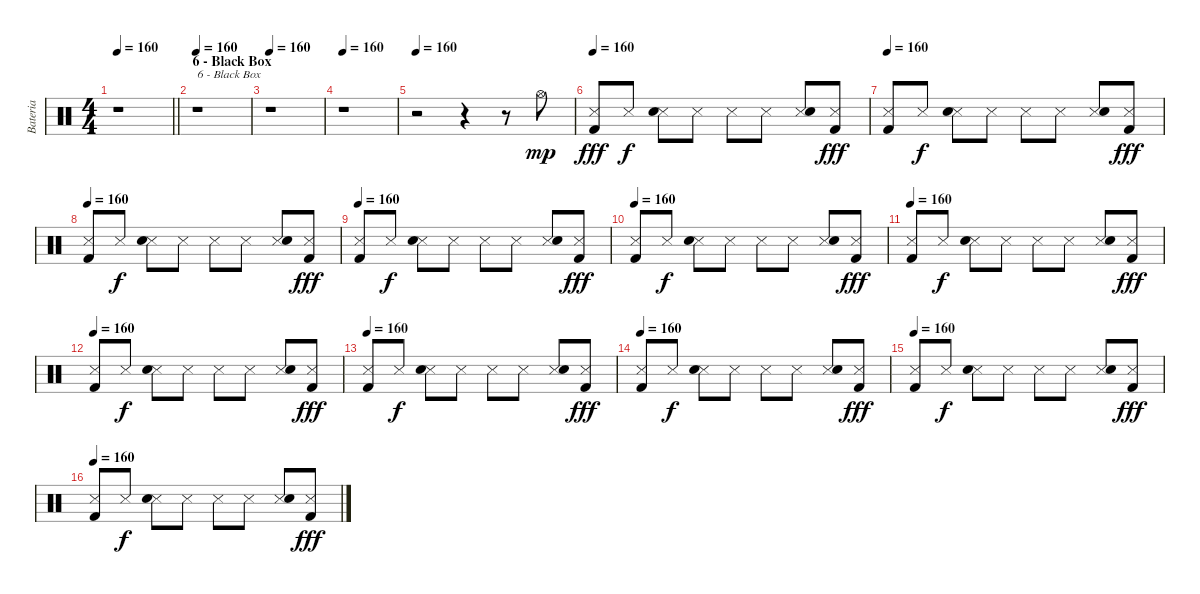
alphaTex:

\track ("Bateria" "Bateria") {instrument percussion}
\staff {score}
\articulation defaults
\ts (4 4)
\tempo 160
\clef neutral
\barLineRight lightlight
\ks c
r.1{dy fff} |
\section ("" "6 - Black Box")
\tempo 160
r.1{txt "6 - Black Box"} |
\tempo 160
r.1 |
\tempo 160
r.1 |
\tempo 160
r.2 r.4 r.8 "Hi-Hat (open)".8{dy mp} |
\tempo 160
("Metronome (hit)" "Kick (hit) 2").8{dy fff} "Metronome (hit)".8{dy f} ("Metronome (hit)" "Snare (hit) 2").8 "Metronome (hit)".8 "Metronome (hit)".8 "Metronome (hit)".8 ("Metronome (hit)" "Snare (hit) 2").8 ("Metronome (hit)" "Kick (hit) 2").8{dy fff} |
\tempo 160
("Metronome (hit)" "Kick (hit) 2").8 "Metronome (hit)".8{dy f} ("Metronome (hit)" "Snare (hit) 2").8 "Metronome (hit)".8 "Metronome (hit)".8 "Metronome (hit)".8 ("Metronome (hit)" "Snare (hit) 2").8 ("Metronome (hit)" "Kick (hit) 2").8{dy fff} |
\tempo 160
("Metronome (hit)" "Kick (hit) 2").8 "Metronome (hit)".8{dy f} ("Metronome (hit)" "Snare (hit) 2").8 "Metronome (hit)".8 "Metronome (hit)".8 "Metronome (hit)".8 ("Metronome (hit)" "Snare (hit) 2").8 ("Metronome (hit)" "Kick (hit) 2").8{dy fff} |
\tempo 160
("Metronome (hit)" "Kick (hit) 2").8 "Metronome (hit)".8{dy f} ("Metronome (hit)" "Snare (hit) 2").8 "Metronome (hit)".8 "Metronome (hit)".8 "Metronome (hit)".8 ("Metronome (hit)" "Snare (hit) 2").8 ("Metronome (hit)" "Kick (hit) 2").8{dy fff} |
\tempo 160
("Metronome (hit)" "Kick (hit) 2").8 "Metronome (hit)".8{dy f} ("Metronome (hit)" "Snare (hit) 2").8 "Metronome (hit)".8 "Metronome (hit)".8 "Metronome (hit)".8 ("Metronome (hit)" "Snare (hit) 2").8 ("Metronome (hit)" "Kick (hit) 2").8{dy fff} |
\tempo 160
("Metronome (hit)" "Kick (hit) 2").8 "Metronome (hit)".8{dy f} ("Metronome (hit)" "Snare (hit) 2").8 "Metronome (hit)".8 "Metronome (hit)".8 "Metronome (hit)".8 ("Metronome (hit)" "Snare (hit) 2").8 ("Metronome (hit)" "Kick (hit) 2").8{dy fff} |
\tempo 160
("Metronome (hit)" "Kick (hit) 2").8 "Metronome (hit)".8{dy f} ("Metronome (hit)" "Snare (hit) 2").8 "Metronome (hit)".8 "Metronome (hit)".8 "Metronome (hit)".8 ("Metronome (hit)" "Snare (hit) 2").8 ("Metronome (hit)" "Kick (hit) 2").8{dy fff} |
\tempo 160
("Metronome (hit)" "Kick (hit) 2").8 "Metronome (hit)".8{dy f} ("Metronome (hit)" "Snare (hit) 2").8 "Metronome (hit)".8 "Metronome (hit)".8 "Metronome (hit)".8 ("Metronome (hit)" "Snare (hit) 2").8 ("Metronome (hit)" "Kick (hit) 2").8{dy fff} |
\tempo 160
("Metronome (hit)" "Kick (hit) 2").8 "Metronome (hit)".8{dy f} ("Metronome (hit)" "Snare (hit) 2").8 "Metronome (hit)".8 "Metronome (hit)".8 "Metronome (hit)".8 ("Metronome (hit)" "Snare (hit) 2").8 ("Metronome (hit)" "Kick (hit) 2").8{dy fff} |
\tempo 160
("Metronome (hit)" "Kick (hit) 2").8 "Metronome (hit)".8{dy f} ("Metronome (hit)" "Snare (hit) 2").8 "Metronome (hit)".8 "Metronome (hit)".8 "Metronome (hit)".8 ("Metronome (hit)" "Snare (hit) 2").8 ("Metronome (hit)" "Kick (hit) 2").8{dy fff} |
\tempo 160
("Metronome (hit)" "Kick (hit) 2").8 "Metronome (hit)".8{dy f} ("Metronome (hit)" "Snare (hit) 2").8 "Metronome (hit)".8 "Metronome (hit)".8 "Metronome (hit)".8 ("Metronome (hit)" "Snare (hit) 2").8 ("Metronome (hit)" "Kick (hit) 2").8{dy fff}
